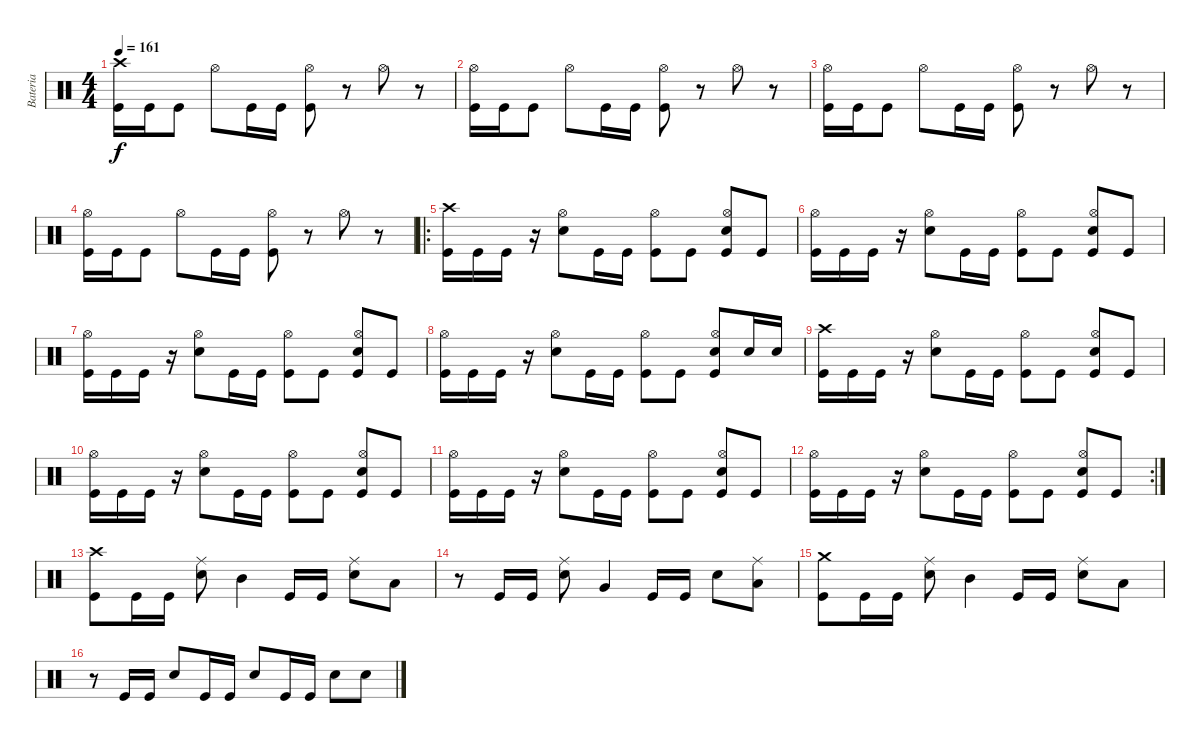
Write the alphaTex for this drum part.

\track ("Bateria" "Bateria") {instrument percussion}
\staff {score}
\articulation defaults
\ts (4 4)
\tempo 161
\clef neutral
\ks c
("Crash high (hit)" "Kick (hit)").16{dy f} "Kick (hit)".16 "Kick (hit)".8 "Hi-Hat (open)".8 "Kick (hit)".16 "Kick (hit)".16 ("Hi-Hat (open)" "Kick (hit)").8 r.8 "Hi-Hat (open)".8 r.8 |
("Hi-Hat (open)" "Kick (hit)").16 "Kick (hit)".16 "Kick (hit)".8 "Hi-Hat (open)".8 "Kick (hit)".16 "Kick (hit)".16 ("Hi-Hat (open)" "Kick (hit)").8 r.8 "Hi-Hat (open)".8 r.8 |
("Hi-Hat (open)" "Kick (hit)").16 "Kick (hit)".16 "Kick (hit)".8 "Hi-Hat (open)".8 "Kick (hit)".16 "Kick (hit)".16 ("Hi-Hat (open)" "Kick (hit)").8 r.8 "Hi-Hat (open)".8 r.8 |
("Hi-Hat (open)" "Kick (hit)").16 "Kick (hit)".16 "Kick (hit)".8 "Hi-Hat (open)".8 "Kick (hit)".16 "Kick (hit)".16 ("Hi-Hat (open)" "Kick (hit)").8 r.8 "Hi-Hat (open)".8 r.8 |
\ro
("Crash high (hit)" "Kick (hit)").16 "Kick (hit)".16 "Kick (hit)".16 r.16 ("Hi-Hat (open)" "Electric Snare (hit)").8 "Kick (hit)".16 "Kick (hit)".16 ("Hi-Hat (open)" "Kick (hit)").8 "Kick (hit)".8 ("Hi-Hat (open)" "Kick (hit)" "Electric Snare (hit)").8 "Kick (hit)".8 |
("Hi-Hat (open)" "Kick (hit)").16 "Kick (hit)".16 "Kick (hit)".16 r.16 ("Hi-Hat (open)" "Electric Snare (hit)").8 "Kick (hit)".16 "Kick (hit)".16 ("Hi-Hat (open)" "Kick (hit)").8 "Kick (hit)".8 ("Hi-Hat (open)" "Kick (hit)" "Electric Snare (hit)").8 "Kick (hit)".8 |
("Hi-Hat (open)" "Kick (hit)").16 "Kick (hit)".16 "Kick (hit)".16 r.16 ("Hi-Hat (open)" "Electric Snare (hit)").8 "Kick (hit)".16 "Kick (hit)".16 ("Hi-Hat (open)" "Kick (hit)").8 "Kick (hit)".8 ("Hi-Hat (open)" "Kick (hit)" "Electric Snare (hit)").8 "Kick (hit)".8 |
("Hi-Hat (open)" "Kick (hit)").16 "Kick (hit)".16 "Kick (hit)".16 r.16 ("Hi-Hat (open)" "Electric Snare (hit)").8 "Kick (hit)".16 "Kick (hit)".16 ("Hi-Hat (open)" "Kick (hit)").8 "Kick (hit)".8 ("Hi-Hat (open)" "Kick (hit)" "Electric Snare (hit)").8 "Electric Snare (hit)".16 "Electric Snare (hit)".16 |
("Crash high (hit)" "Kick (hit)").16 "Kick (hit)".16 "Kick (hit)".16 r.16 ("Hi-Hat (open)" "Electric Snare (hit)").8 "Kick (hit)".16 "Kick (hit)".16 ("Hi-Hat (open)" "Kick (hit)").8 "Kick (hit)".8 ("Hi-Hat (open)" "Kick (hit)" "Electric Snare (hit)").8 "Kick (hit)".8 |
("Hi-Hat (open)" "Kick (hit)").16 "Kick (hit)".16 "Kick (hit)".16 r.16 ("Hi-Hat (open)" "Electric Snare (hit)").8 "Kick (hit)".16 "Kick (hit)".16 ("Hi-Hat (open)" "Kick (hit)").8 "Kick (hit)".8 ("Hi-Hat (open)" "Kick (hit)" "Electric Snare (hit)").8 "Kick (hit)".8 |
("Hi-Hat (open)" "Kick (hit)").16 "Kick (hit)".16 "Kick (hit)".16 r.16 ("Hi-Hat (open)" "Electric Snare (hit)").8 "Kick (hit)".16 "Kick (hit)".16 ("Hi-Hat (open)" "Kick (hit)").8 "Kick (hit)".8 ("Hi-Hat (open)" "Kick (hit)" "Electric Snare (hit)").8 "Kick (hit)".8 |
\rc 2
("Hi-Hat (open)" "Kick (hit)").16 "Kick (hit)".16 "Kick (hit)".16 r.16 ("Hi-Hat (open)" "Electric Snare (hit)").8 "Kick (hit)".16 "Kick (hit)".16 ("Hi-Hat (open)" "Kick (hit)").8 "Kick (hit)".8 ("Hi-Hat (open)" "Kick (hit)" "Electric Snare (hit)").8 "Kick (hit)".8 |
("Kick (hit)" "Crash high (hit)").8 "Kick (hit)".16 "Kick (hit)".16 ("Electric Snare (hit)" "Ride (middle)").8 "Mid Tom (hit)".4 "Kick (hit)".16 "Kick (hit)".16 ("Electric Snare (hit)" "Ride (middle)").8 "Low Tom (hit)".8 |
r.8 "Kick (hit)".16 "Kick (hit)".16 ("Electric Snare (hit)" "Ride (middle)").8 "Very Low Tom (hit)".4 "Kick (hit)".16 "Kick (hit)".16 "Electric Snare (hit)".8 ("Low Floor Tom (hit)" "Ride (middle)").8 |
("Kick (hit)" "Crash medium (hit)").8 "Kick (hit)".16 "Kick (hit)".16 ("Electric Snare (hit)" "Ride (middle)").8 "Mid Tom (hit)".4 "Kick (hit)".16 "Kick (hit)".16 ("Electric Snare (hit)" "Ride (middle)").8 "Low Tom (hit)".8 |
r.8 "Kick (hit)".16 "Kick (hit)".16 "Electric Snare (hit)".8 "Kick (hit)".16 "Kick (hit)".16 "Electric Snare (hit)".8 "Kick (hit)".16 "Kick (hit)".16 "Electric Snare (hit)".8 "Electric Snare (hit)".8
